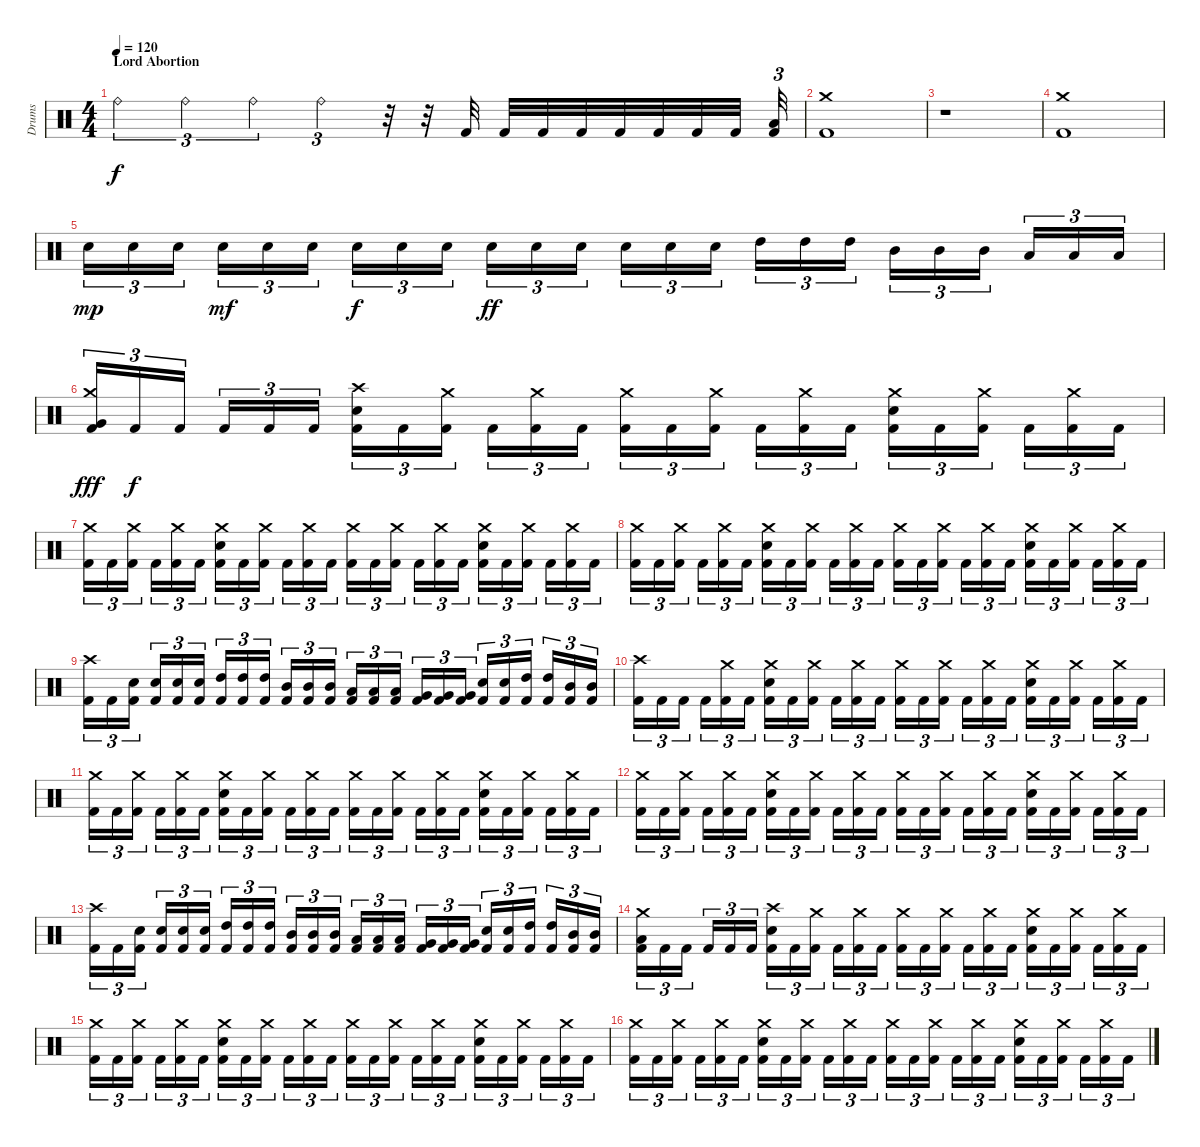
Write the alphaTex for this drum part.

\track ("Drums" "Drums") {instrument percussion}
\staff {score}
\articulation defaults
\ts (4 4)
\section ("" "Lord Abortion")
\tempo 120
\tempo 100
\tempo 120
\clef neutral
\ks c "Ride (bell)".4{tu (3 2) dy f} "Ride (bell)".4{tu (3 2)} "Ride (bell)".4{tu (3 2)} "Ride (bell)".4{tu (3 2)}
r.32 r.32 "Kick (hit) 2".32 "Kick (hit) 2".32 "Kick (hit) 2".32 "Kick (hit) 2".32 "Kick (hit) 2".32 "Kick (hit) 2".32 "Kick (hit) 2".32 "Kick (hit) 2".32 ("Kick (hit) 2" "Low Tom (hit)").32{tu (3 2)} |
("Kick (hit) 2" "Crash medium (hit)").1 |
r.1 |
("Kick (hit) 2" "Crash medium (hit)").1 |
"Electric Snare (hit)".16{tu (3 2) dy mp} "Electric Snare (hit)".16{tu (3 2)} "Electric Snare (hit)".16{tu (3 2)} "Electric Snare (hit)".16{tu (3 2) dy mf} "Electric Snare (hit)".16{tu (3 2)} "Electric Snare (hit)".16{tu (3 2)} "Electric Snare (hit)".16{tu (3 2) dy f} "Electric Snare (hit)".16{tu (3 2)} "Electric Snare (hit)".16{tu (3 2)} "Electric Snare (hit)".16{tu (3 2) dy ff} "Electric Snare (hit)".16{tu (3 2)} "Electric Snare (hit)".16{tu (3 2)} "Electric Snare (hit)".16{tu (3 2)} "Electric Snare (hit)".16{tu (3 2)} "Electric Snare (hit)".16{tu (3 2)} "High Tom (hit)".16{tu (3 2)} "High Tom (hit)".16{tu (3 2)} "High Tom (hit)".16{tu (3 2)} "Mid Tom (hit)".16{tu (3 2)} "Mid Tom (hit)".16{tu (3 2)} "Mid Tom (hit)".16{tu (3 2)} "Low Tom (hit)".16{tu (3 2)} "Low Tom (hit)".16{tu (3 2)} "Low Tom (hit)".16{tu (3 2)} |
("Kick (hit) 2" "Very Low Tom (hit)" "Crash medium (hit)").16{tu (3 2) dy fff} "Kick (hit) 2".16{tu (3 2) dy f} "Kick (hit) 2".16{tu (3 2)} "Kick (hit) 2".16{tu (3 2)} "Kick (hit) 2".16{tu (3 2)} "Kick (hit) 2".16{tu (3 2)} ("Kick (hit) 2" "Electric Snare (hit)" "Crash high (hit)").16{tu (3 2)} "Kick (hit) 2".16{tu (3 2)} ("Kick (hit) 2" "Crash medium (hit)").16{tu (3 2)} "Kick (hit) 2".16{tu (3 2)} ("Kick (hit) 2" "Crash medium (hit)").16{tu (3 2)} "Kick (hit) 2".16{tu (3 2)} ("Kick (hit) 2" "Crash medium (hit)").16{tu (3 2)} "Kick (hit) 2".16{tu (3 2)} ("Kick (hit) 2" "Crash medium (hit)").16{tu (3 2)} "Kick (hit) 2".16{tu (3 2)} ("Kick (hit) 2" "Crash medium (hit)").16{tu (3 2)} "Kick (hit) 2".16{tu (3 2)} ("Kick (hit) 2" "Electric Snare (hit)" "Crash medium (hit)").16{tu (3 2)} "Kick (hit) 2".16{tu (3 2)} ("Kick (hit) 2" "Crash medium (hit)").16{tu (3 2)} "Kick (hit) 2".16{tu (3 2)} ("Kick (hit) 2" "Crash medium (hit)").16{tu (3 2)} "Kick (hit) 2".16{tu (3 2)} |
("Kick (hit) 2" "Crash medium (hit)").16{tu (3 2)} "Kick (hit) 2".16{tu (3 2)} ("Kick (hit) 2" "Crash medium (hit)").16{tu (3 2)} "Kick (hit) 2".16{tu (3 2)} ("Kick (hit) 2" "Crash medium (hit)").16{tu (3 2)} "Kick (hit) 2".16{tu (3 2)} ("Kick (hit) 2" "Electric Snare (hit)" "Crash medium (hit)").16{tu (3 2)} "Kick (hit) 2".16{tu (3 2)} ("Kick (hit) 2" "Crash medium (hit)").16{tu (3 2)} "Kick (hit) 2".16{tu (3 2)} ("Kick (hit) 2" "Crash medium (hit)").16{tu (3 2)} "Kick (hit) 2".16{tu (3 2)} ("Kick (hit) 2" "Crash medium (hit)").16{tu (3 2)} "Kick (hit) 2".16{tu (3 2)} ("Kick (hit) 2" "Crash medium (hit)").16{tu (3 2)} "Kick (hit) 2".16{tu (3 2)} ("Kick (hit) 2" "Crash medium (hit)").16{tu (3 2)} "Kick (hit) 2".16{tu (3 2)} ("Kick (hit) 2" "Electric Snare (hit)" "Crash medium (hit)").16{tu (3 2)} "Kick (hit) 2".16{tu (3 2)} ("Kick (hit) 2" "Crash medium (hit)").16{tu (3 2)} "Kick (hit) 2".16{tu (3 2)} ("Kick (hit) 2" "Crash medium (hit)").16{tu (3 2)} "Kick (hit) 2".16{tu (3 2)} |
("Kick (hit) 2" "Crash medium (hit)").16{tu (3 2)} "Kick (hit) 2".16{tu (3 2)} ("Kick (hit) 2" "Crash medium (hit)").16{tu (3 2)} "Kick (hit) 2".16{tu (3 2)} ("Kick (hit) 2" "Crash medium (hit)").16{tu (3 2)} "Kick (hit) 2".16{tu (3 2)} ("Kick (hit) 2" "Electric Snare (hit)" "Crash medium (hit)").16{tu (3 2)} "Kick (hit) 2".16{tu (3 2)} ("Kick (hit) 2" "Crash medium (hit)").16{tu (3 2)} "Kick (hit) 2".16{tu (3 2)} ("Kick (hit) 2" "Crash medium (hit)").16{tu (3 2)} "Kick (hit) 2".16{tu (3 2)} ("Kick (hit) 2" "Crash medium (hit)").16{tu (3 2)} "Kick (hit) 2".16{tu (3 2)} ("Kick (hit) 2" "Crash medium (hit)").16{tu (3 2)} "Kick (hit) 2".16{tu (3 2)} ("Kick (hit) 2" "Crash medium (hit)").16{tu (3 2)} "Kick (hit) 2".16{tu (3 2)} ("Kick (hit) 2" "Electric Snare (hit)" "Crash medium (hit)").16{tu (3 2)} "Kick (hit) 2".16{tu (3 2)} ("Kick (hit) 2" "Crash medium (hit)").16{tu (3 2)} "Kick (hit) 2".16{tu (3 2)} ("Kick (hit) 2" "Crash medium (hit)").16{tu (3 2)} "Kick (hit) 2".16{tu (3 2)} |
("Kick (hit) 2" "Crash high (hit)").16{tu (3 2)} "Kick (hit) 2".16{tu (3 2)} ("Kick (hit) 2" "Electric Snare (hit)").16{tu (3 2)} ("Kick (hit) 2" "Electric Snare (hit)").16{tu (3 2)} ("Kick (hit) 2" "Electric Snare (hit)").16{tu (3 2)} ("Kick (hit) 2" "Electric Snare (hit)").16{tu (3 2)} ("Kick (hit) 2" "High Tom (hit)").16{tu (3 2)} ("Kick (hit) 2" "High Tom (hit)").16{tu (3 2)} ("Kick (hit) 2" "High Tom (hit)").16{tu (3 2)} ("Kick (hit) 2" "Mid Tom (hit)").16{tu (3 2)} ("Kick (hit) 2" "Mid Tom (hit)").16{tu (3 2)} ("Kick (hit) 2" "Mid Tom (hit)").16{tu (3 2)} ("Kick (hit) 2" "Low Tom (hit)").16{tu (3 2)} ("Kick (hit) 2" "Low Tom (hit)").16{tu (3 2)} ("Kick (hit) 2" "Low Tom (hit)").16{tu (3 2)} ("Kick (hit) 2" "Very Low Tom (hit)").16{tu (3 2)} ("Kick (hit) 2" "Very Low Tom (hit)").16{tu (3 2)} ("Kick (hit) 2" "Very Low Tom (hit)").16{tu (3 2)} ("Kick (hit) 2" "Electric Snare (hit)").16{tu (3 2)} ("Kick (hit) 2" "Electric Snare (hit)").16{tu (3 2)} ("Kick (hit) 2" "High Tom (hit)").16{tu (3 2)} ("Kick (hit) 2" "High Tom (hit)").16{tu (3 2)} ("Kick (hit) 2" "Mid Tom (hit)").16{tu (3 2)} ("Kick (hit) 2" "Mid Tom (hit)").16{tu (3 2)} |
("Kick (hit) 2" "Crash high (hit)").16{tu (3 2)} "Kick (hit) 2".16{tu (3 2)} "Kick (hit) 2".16{tu (3 2)} "Kick (hit) 2".16{tu (3 2)} ("Kick (hit) 2" "Crash medium (hit)").16{tu (3 2)} "Kick (hit) 2".16{tu (3 2)} ("Kick (hit) 2" "Electric Snare (hit)" "Crash medium (hit)").16{tu (3 2)} "Kick (hit) 2".16{tu (3 2)} ("Kick (hit) 2" "Crash medium (hit)").16{tu (3 2)} "Kick (hit) 2".16{tu (3 2)} ("Kick (hit) 2" "Crash medium (hit)").16{tu (3 2)} "Kick (hit) 2".16{tu (3 2)} ("Kick (hit) 2" "Crash medium (hit)").16{tu (3 2)} "Kick (hit) 2".16{tu (3 2)} ("Kick (hit) 2" "Crash medium (hit)").16{tu (3 2)} "Kick (hit) 2".16{tu (3 2)} ("Kick (hit) 2" "Crash medium (hit)").16{tu (3 2)} "Kick (hit) 2".16{tu (3 2)} ("Kick (hit) 2" "Electric Snare (hit)" "Crash medium (hit)").16{tu (3 2)} "Kick (hit) 2".16{tu (3 2)} ("Kick (hit) 2" "Crash medium (hit)").16{tu (3 2)} "Kick (hit) 2".16{tu (3 2)} ("Kick (hit) 2" "Crash medium (hit)").16{tu (3 2)} "Kick (hit) 2".16{tu (3 2)} |
("Kick (hit) 2" "Crash medium (hit)").16{tu (3 2)} "Kick (hit) 2".16{tu (3 2)} ("Kick (hit) 2" "Crash medium (hit)").16{tu (3 2)} "Kick (hit) 2".16{tu (3 2)} ("Kick (hit) 2" "Crash medium (hit)").16{tu (3 2)} "Kick (hit) 2".16{tu (3 2)} ("Kick (hit) 2" "Electric Snare (hit)" "Crash medium (hit)").16{tu (3 2)} "Kick (hit) 2".16{tu (3 2)} ("Kick (hit) 2" "Crash medium (hit)").16{tu (3 2)} "Kick (hit) 2".16{tu (3 2)} ("Kick (hit) 2" "Crash medium (hit)").16{tu (3 2)} "Kick (hit) 2".16{tu (3 2)} ("Kick (hit) 2" "Crash medium (hit)").16{tu (3 2)} "Kick (hit) 2".16{tu (3 2)} ("Kick (hit) 2" "Crash medium (hit)").16{tu (3 2)} "Kick (hit) 2".16{tu (3 2)} ("Kick (hit) 2" "Crash medium (hit)").16{tu (3 2)} "Kick (hit) 2".16{tu (3 2)} ("Kick (hit) 2" "Electric Snare (hit)" "Crash medium (hit)").16{tu (3 2)} "Kick (hit) 2".16{tu (3 2)} ("Kick (hit) 2" "Crash medium (hit)").16{tu (3 2)} "Kick (hit) 2".16{tu (3 2)} ("Kick (hit) 2" "Crash medium (hit)").16{tu (3 2)} "Kick (hit) 2".16{tu (3 2)} |
("Kick (hit) 2" "Crash medium (hit)").16{tu (3 2)} "Kick (hit) 2".16{tu (3 2)} ("Kick (hit) 2" "Crash medium (hit)").16{tu (3 2)} "Kick (hit) 2".16{tu (3 2)} ("Kick (hit) 2" "Crash medium (hit)").16{tu (3 2)} "Kick (hit) 2".16{tu (3 2)} ("Kick (hit) 2" "Electric Snare (hit)" "Crash medium (hit)").16{tu (3 2)} "Kick (hit) 2".16{tu (3 2)} ("Kick (hit) 2" "Crash medium (hit)").16{tu (3 2)} "Kick (hit) 2".16{tu (3 2)} ("Kick (hit) 2" "Crash medium (hit)").16{tu (3 2)} "Kick (hit) 2".16{tu (3 2)} ("Kick (hit) 2" "Crash medium (hit)").16{tu (3 2)} "Kick (hit) 2".16{tu (3 2)} ("Kick (hit) 2" "Crash medium (hit)").16{tu (3 2)} "Kick (hit) 2".16{tu (3 2)} ("Kick (hit) 2" "Crash medium (hit)").16{tu (3 2)} "Kick (hit) 2".16{tu (3 2)} ("Kick (hit) 2" "Electric Snare (hit)" "Crash medium (hit)").16{tu (3 2)} "Kick (hit) 2".16{tu (3 2)} ("Kick (hit) 2" "Crash medium (hit)").16{tu (3 2)} "Kick (hit) 2".16{tu (3 2)} ("Kick (hit) 2" "Crash medium (hit)").16{tu (3 2)} "Kick (hit) 2".16{tu (3 2)} |
("Kick (hit) 2" "Crash high (hit)").16{tu (3 2)} "Kick (hit) 2".16{tu (3 2)} ("Kick (hit) 2" "Electric Snare (hit)").16{tu (3 2)} ("Kick (hit) 2" "Electric Snare (hit)").16{tu (3 2)} ("Kick (hit) 2" "Electric Snare (hit)").16{tu (3 2)} ("Kick (hit) 2" "Electric Snare (hit)").16{tu (3 2)} ("Kick (hit) 2" "High Tom (hit)").16{tu (3 2)} ("Kick (hit) 2" "High Tom (hit)").16{tu (3 2)} ("Kick (hit) 2" "High Tom (hit)").16{tu (3 2)} ("Kick (hit) 2" "Mid Tom (hit)").16{tu (3 2)} ("Kick (hit) 2" "Mid Tom (hit)").16{tu (3 2)} ("Kick (hit) 2" "Mid Tom (hit)").16{tu (3 2)} ("Kick (hit) 2" "Low Tom (hit)").16{tu (3 2)} ("Kick (hit) 2" "Low Tom (hit)").16{tu (3 2)} ("Kick (hit) 2" "Low Tom (hit)").16{tu (3 2)} ("Kick (hit) 2" "Very Low Tom (hit)").16{tu (3 2)} ("Kick (hit) 2" "Very Low Tom (hit)").16{tu (3 2)} ("Kick (hit) 2" "Very Low Tom (hit)").16{tu (3 2)} ("Kick (hit) 2" "Electric Snare (hit)").16{tu (3 2)} ("Kick (hit) 2" "Electric Snare (hit)").16{tu (3 2)} ("Kick (hit) 2" "High Tom (hit)").16{tu (3 2)} ("Kick (hit) 2" "High Tom (hit)").16{tu (3 2)} ("Kick (hit) 2" "Mid Tom (hit)").16{tu (3 2)} ("Kick (hit) 2" "Mid Tom (hit)").16{tu (3 2)} |
("Kick (hit) 2" "Low Tom (hit)" "Crash medium (hit)").16{tu (3 2)} "Kick (hit) 2".16{tu (3 2)} "Kick (hit) 2".16{tu (3 2)} "Kick (hit) 2".16{tu (3 2)} "Kick (hit) 2".16{tu (3 2)} "Kick (hit) 2".16{tu (3 2)} ("Kick (hit) 2" "Electric Snare (hit)" "Crash high (hit)").16{tu (3 2)} "Kick (hit) 2".16{tu (3 2)} ("Kick (hit) 2" "Crash medium (hit)").16{tu (3 2)} "Kick (hit) 2".16{tu (3 2)} ("Kick (hit) 2" "Crash medium (hit)").16{tu (3 2)} "Kick (hit) 2".16{tu (3 2)} ("Kick (hit) 2" "Crash medium (hit)").16{tu (3 2)} "Kick (hit) 2".16{tu (3 2)} ("Kick (hit) 2" "Crash medium (hit)").16{tu (3 2)} "Kick (hit) 2".16{tu (3 2)} ("Kick (hit) 2" "Crash medium (hit)").16{tu (3 2)} "Kick (hit) 2".16{tu (3 2)} ("Kick (hit) 2" "Electric Snare (hit)" "Crash medium (hit)").16{tu (3 2)} "Kick (hit) 2".16{tu (3 2)} ("Kick (hit) 2" "Crash medium (hit)").16{tu (3 2)} "Kick (hit) 2".16{tu (3 2)} ("Kick (hit) 2" "Crash medium (hit)").16{tu (3 2)} "Kick (hit) 2".16{tu (3 2)} |
("Kick (hit) 2" "Crash medium (hit)").16{tu (3 2)} "Kick (hit) 2".16{tu (3 2)} ("Kick (hit) 2" "Crash medium (hit)").16{tu (3 2)} "Kick (hit) 2".16{tu (3 2)} ("Kick (hit) 2" "Crash medium (hit)").16{tu (3 2)} "Kick (hit) 2".16{tu (3 2)} ("Kick (hit) 2" "Electric Snare (hit)" "Crash medium (hit)").16{tu (3 2)} "Kick (hit) 2".16{tu (3 2)} ("Kick (hit) 2" "Crash medium (hit)").16{tu (3 2)} "Kick (hit) 2".16{tu (3 2)} ("Kick (hit) 2" "Crash medium (hit)").16{tu (3 2)} "Kick (hit) 2".16{tu (3 2)} ("Kick (hit) 2" "Crash medium (hit)").16{tu (3 2)} "Kick (hit) 2".16{tu (3 2)} ("Kick (hit) 2" "Crash medium (hit)").16{tu (3 2)} "Kick (hit) 2".16{tu (3 2)} ("Kick (hit) 2" "Crash medium (hit)").16{tu (3 2)} "Kick (hit) 2".16{tu (3 2)} ("Kick (hit) 2" "Electric Snare (hit)" "Crash medium (hit)").16{tu (3 2)} "Kick (hit) 2".16{tu (3 2)} ("Kick (hit) 2" "Crash medium (hit)").16{tu (3 2)} "Kick (hit) 2".16{tu (3 2)} ("Kick (hit) 2" "Crash medium (hit)").16{tu (3 2)} "Kick (hit) 2".16{tu (3 2)} |
("Kick (hit) 2" "Crash medium (hit)").16{tu (3 2)} "Kick (hit) 2".16{tu (3 2)} ("Kick (hit) 2" "Crash medium (hit)").16{tu (3 2)} "Kick (hit) 2".16{tu (3 2)} ("Kick (hit) 2" "Crash medium (hit)").16{tu (3 2)} "Kick (hit) 2".16{tu (3 2)} ("Kick (hit) 2" "Electric Snare (hit)" "Crash medium (hit)").16{tu (3 2)} "Kick (hit) 2".16{tu (3 2)} ("Kick (hit) 2" "Crash medium (hit)").16{tu (3 2)} "Kick (hit) 2".16{tu (3 2)} ("Kick (hit) 2" "Crash medium (hit)").16{tu (3 2)} "Kick (hit) 2".16{tu (3 2)} ("Kick (hit) 2" "Crash medium (hit)").16{tu (3 2)} "Kick (hit) 2".16{tu (3 2)} ("Kick (hit) 2" "Crash medium (hit)").16{tu (3 2)} "Kick (hit) 2".16{tu (3 2)} ("Kick (hit) 2" "Crash medium (hit)").16{tu (3 2)} "Kick (hit) 2".16{tu (3 2)} ("Kick (hit) 2" "Electric Snare (hit)" "Crash medium (hit)").16{tu (3 2)} "Kick (hit) 2".16{tu (3 2)} ("Kick (hit) 2" "Crash medium (hit)").16{tu (3 2)} "Kick (hit) 2".16{tu (3 2)} ("Kick (hit) 2" "Crash medium (hit)").16{tu (3 2)} "Kick (hit) 2".16{tu (3 2)}
